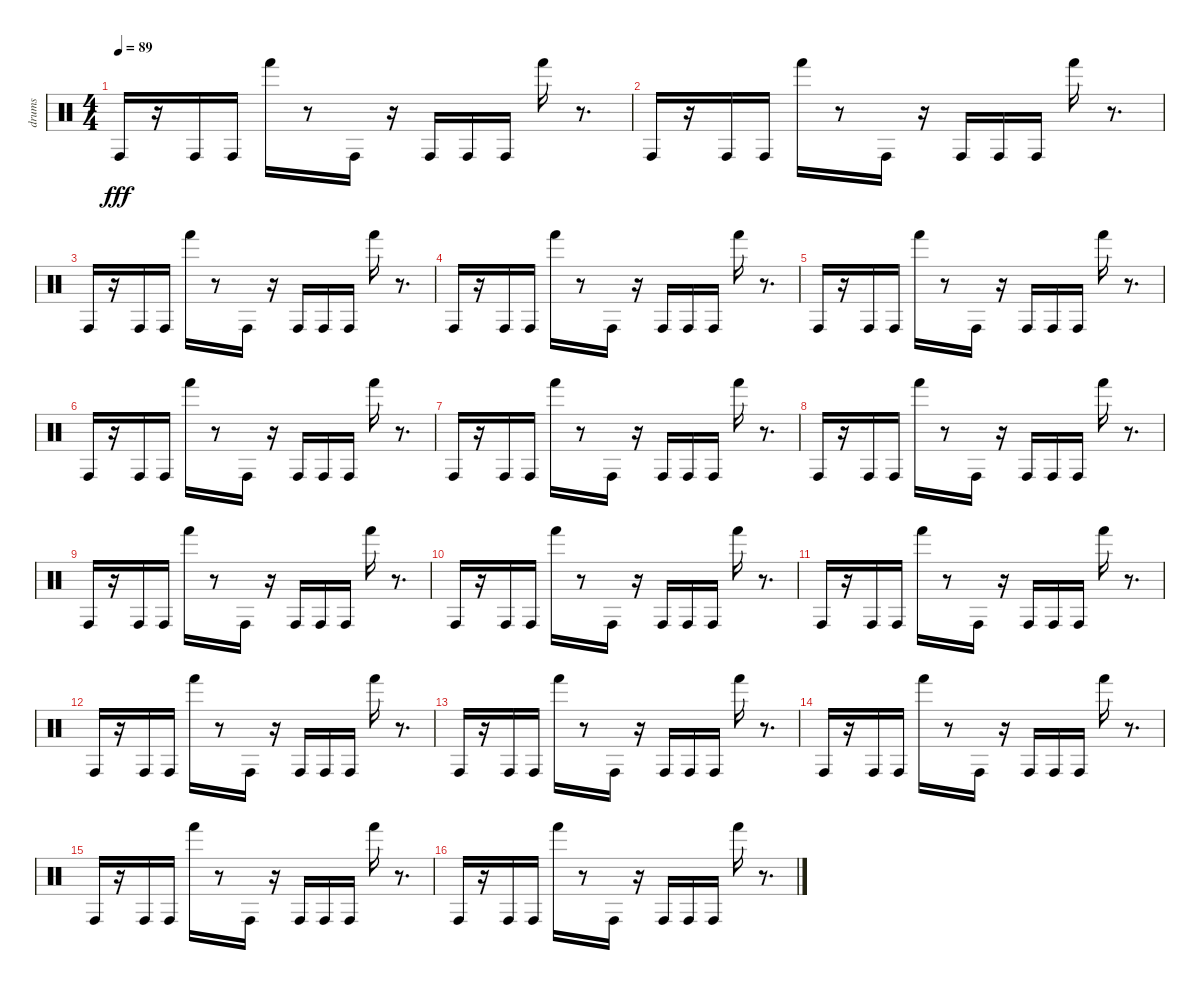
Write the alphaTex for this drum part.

\track ("drums" "drums") {instrument percussion}
\staff {score}
\articulation defaults
\ts (4 4)
\tempo 89
\clef neutral
\ks c "Conga high (hit)".16{dy fff}
r.16 "Conga high (hit)".16 "Conga high (hit)".16 "Hand (hit)".16 r.8 "Conga high (hit)".16 r.16 "Conga high (hit)".16 "Conga high (hit)".16 "Conga high (hit)".16 "Hand (hit)".16 r.8{d} |
"Conga high (hit)".16 r.16 "Conga high (hit)".16 "Conga high (hit)".16 "Hand (hit)".16 r.8 "Conga high (hit)".16 r.16 "Conga high (hit)".16 "Conga high (hit)".16 "Conga high (hit)".16 "Hand (hit)".16 r.8{d} |
"Conga high (hit)".16 r.16 "Conga high (hit)".16 "Conga high (hit)".16 "Hand (hit)".16 r.8 "Conga high (hit)".16 r.16 "Conga high (hit)".16 "Conga high (hit)".16 "Conga high (hit)".16 "Hand (hit)".16 r.8{d} |
"Conga high (hit)".16 r.16 "Conga high (hit)".16 "Conga high (hit)".16 "Hand (hit)".16 r.8 "Conga high (hit)".16 r.16 "Conga high (hit)".16 "Conga high (hit)".16 "Conga high (hit)".16 "Hand (hit)".16 r.8{d} |
"Conga high (hit)".16 r.16 "Conga high (hit)".16 "Conga high (hit)".16 "Hand (hit)".16 r.8 "Conga high (hit)".16 r.16 "Conga high (hit)".16 "Conga high (hit)".16 "Conga high (hit)".16 "Hand (hit)".16 r.8{d} |
"Conga high (hit)".16 r.16 "Conga high (hit)".16 "Conga high (hit)".16 "Hand (hit)".16 r.8 "Conga high (hit)".16 r.16 "Conga high (hit)".16 "Conga high (hit)".16 "Conga high (hit)".16 "Hand (hit)".16 r.8{d} |
"Conga high (hit)".16 r.16 "Conga high (hit)".16 "Conga high (hit)".16 "Hand (hit)".16 r.8 "Conga high (hit)".16 r.16 "Conga high (hit)".16 "Conga high (hit)".16 "Conga high (hit)".16 "Hand (hit)".16 r.8{d} |
"Conga high (hit)".16 r.16 "Conga high (hit)".16 "Conga high (hit)".16 "Hand (hit)".16 r.8 "Conga high (hit)".16 r.16 "Conga high (hit)".16 "Conga high (hit)".16 "Conga high (hit)".16 "Hand (hit)".16 r.8{d} |
"Conga high (hit)".16 r.16 "Conga high (hit)".16 "Conga high (hit)".16 "Hand (hit)".16 r.8 "Conga high (hit)".16 r.16 "Conga high (hit)".16 "Conga high (hit)".16 "Conga high (hit)".16 "Hand (hit)".16 r.8{d} |
"Conga high (hit)".16 r.16 "Conga high (hit)".16 "Conga high (hit)".16 "Hand (hit)".16 r.8 "Conga high (hit)".16 r.16 "Conga high (hit)".16 "Conga high (hit)".16 "Conga high (hit)".16 "Hand (hit)".16 r.8{d} |
"Conga high (hit)".16 r.16 "Conga high (hit)".16 "Conga high (hit)".16 "Hand (hit)".16 r.8 "Conga high (hit)".16 r.16 "Conga high (hit)".16 "Conga high (hit)".16 "Conga high (hit)".16 "Hand (hit)".16 r.8{d} |
"Conga high (hit)".16 r.16 "Conga high (hit)".16 "Conga high (hit)".16 "Hand (hit)".16 r.8 "Conga high (hit)".16 r.16 "Conga high (hit)".16 "Conga high (hit)".16 "Conga high (hit)".16 "Hand (hit)".16 r.8{d} |
"Conga high (hit)".16 r.16 "Conga high (hit)".16 "Conga high (hit)".16 "Hand (hit)".16 r.8 "Conga high (hit)".16 r.16 "Conga high (hit)".16 "Conga high (hit)".16 "Conga high (hit)".16 "Hand (hit)".16 r.8{d} |
"Conga high (hit)".16 r.16 "Conga high (hit)".16 "Conga high (hit)".16 "Hand (hit)".16 r.8 "Conga high (hit)".16 r.16 "Conga high (hit)".16 "Conga high (hit)".16 "Conga high (hit)".16 "Hand (hit)".16 r.8{d} |
"Conga high (hit)".16 r.16 "Conga high (hit)".16 "Conga high (hit)".16 "Hand (hit)".16 r.8 "Conga high (hit)".16 r.16 "Conga high (hit)".16 "Conga high (hit)".16 "Conga high (hit)".16 "Hand (hit)".16 r.8{d} |
"Conga high (hit)".16 r.16 "Conga high (hit)".16 "Conga high (hit)".16 "Hand (hit)".16 r.8 "Conga high (hit)".16 r.16 "Conga high (hit)".16 "Conga high (hit)".16 "Conga high (hit)".16 "Hand (hit)".16 r.8{d}
